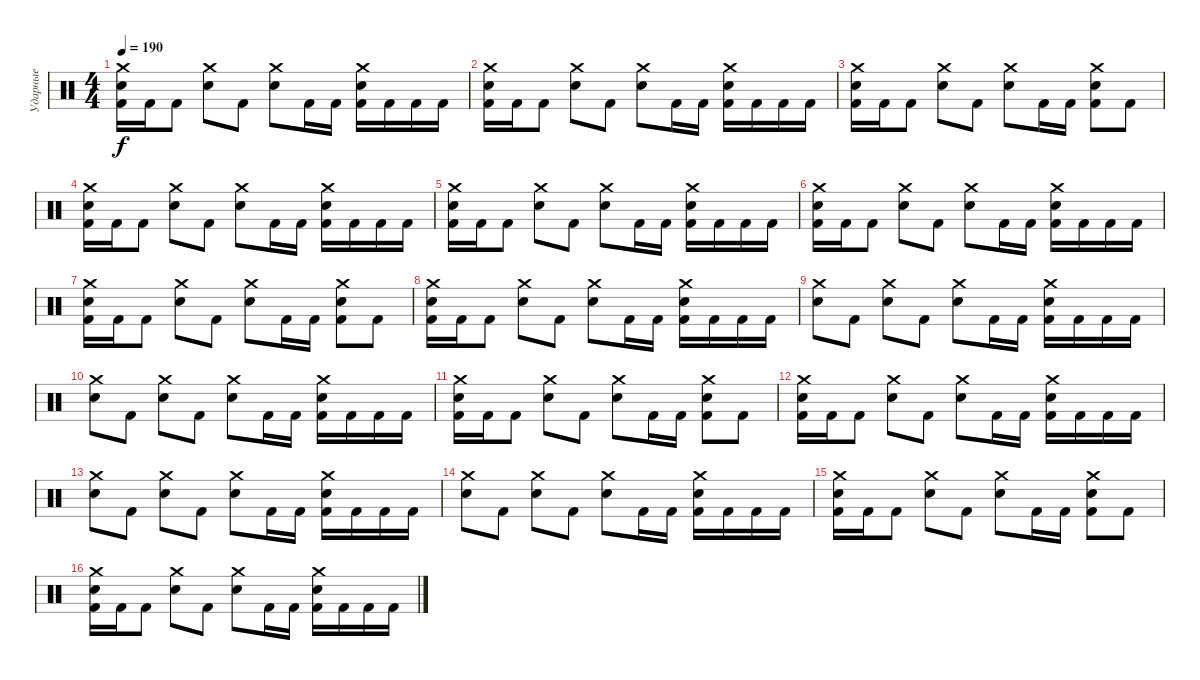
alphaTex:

\track ("Ударные" "Ударные") {instrument percussion}
\staff {score}
\articulation defaults
\ts (4 4)
\section ("" "")
\tempo 190
\clef neutral
\ks c
("Crash medium (hit)" "Snare (hit) 2" "Kick (hit) 2").16{dy f} "Kick (hit) 2".16 "Kick (hit) 2".8 ("Crash medium (hit)" "Snare (hit) 2").8 "Kick (hit) 2".8 ("Crash medium (hit)" "Snare (hit) 2").8 "Kick (hit) 2".16 "Kick (hit) 2".16 ("Crash medium (hit)" "Snare (hit) 2" "Kick (hit) 2").16 "Kick (hit) 2".16 "Kick (hit) 2".16 "Kick (hit) 2".16 |
("Crash medium (hit)" "Snare (hit) 2" "Kick (hit) 2").16 "Kick (hit) 2".16 "Kick (hit) 2".8 ("Crash medium (hit)" "Snare (hit) 2").8 "Kick (hit) 2".8 ("Crash medium (hit)" "Snare (hit) 2").8 "Kick (hit) 2".16 "Kick (hit) 2".16 ("Crash medium (hit)" "Snare (hit) 2" "Kick (hit) 2").16 "Kick (hit) 2".16 "Kick (hit) 2".16 "Kick (hit) 2".16 |
("Crash medium (hit)" "Snare (hit) 2" "Kick (hit) 2").16 "Kick (hit) 2".16 "Kick (hit) 2".8 ("Crash medium (hit)" "Snare (hit) 2").8 "Kick (hit) 2".8 ("Crash medium (hit)" "Snare (hit) 2").8 "Kick (hit) 2".16 "Kick (hit) 2".16 ("Crash medium (hit)" "Snare (hit) 2" "Kick (hit) 2").8 "Kick (hit) 2".8 |
("Crash medium (hit)" "Snare (hit) 2" "Kick (hit) 2").16 "Kick (hit) 2".16 "Kick (hit) 2".8 ("Crash medium (hit)" "Snare (hit) 2").8 "Kick (hit) 2".8 ("Crash medium (hit)" "Snare (hit) 2").8 "Kick (hit) 2".16 "Kick (hit) 2".16 ("Crash medium (hit)" "Snare (hit) 2" "Kick (hit) 2").16 "Kick (hit) 2".16 "Kick (hit) 2".16 "Kick (hit) 2".16 |
("Crash medium (hit)" "Snare (hit) 2" "Kick (hit) 2").16 "Kick (hit) 2".16 "Kick (hit) 2".8 ("Crash medium (hit)" "Snare (hit) 2").8 "Kick (hit) 2".8 ("Crash medium (hit)" "Snare (hit) 2").8 "Kick (hit) 2".16 "Kick (hit) 2".16 ("Crash medium (hit)" "Snare (hit) 2" "Kick (hit) 2").16 "Kick (hit) 2".16 "Kick (hit) 2".16 "Kick (hit) 2".16 |
("Crash medium (hit)" "Snare (hit) 2" "Kick (hit) 2").16 "Kick (hit) 2".16 "Kick (hit) 2".8 ("Crash medium (hit)" "Snare (hit) 2").8 "Kick (hit) 2".8 ("Crash medium (hit)" "Snare (hit) 2").8 "Kick (hit) 2".16 "Kick (hit) 2".16 ("Crash medium (hit)" "Snare (hit) 2" "Kick (hit) 2").16 "Kick (hit) 2".16 "Kick (hit) 2".16 "Kick (hit) 2".16 |
("Crash medium (hit)" "Snare (hit) 2" "Kick (hit) 2").16 "Kick (hit) 2".16 "Kick (hit) 2".8 ("Crash medium (hit)" "Snare (hit) 2").8 "Kick (hit) 2".8 ("Crash medium (hit)" "Snare (hit) 2").8 "Kick (hit) 2".16 "Kick (hit) 2".16 ("Crash medium (hit)" "Snare (hit) 2" "Kick (hit) 2").8 "Kick (hit) 2".8 |
("Crash medium (hit)" "Snare (hit) 2" "Kick (hit) 2").16 "Kick (hit) 2".16 "Kick (hit) 2".8 ("Crash medium (hit)" "Snare (hit) 2").8 "Kick (hit) 2".8 ("Crash medium (hit)" "Snare (hit) 2").8 "Kick (hit) 2".16 "Kick (hit) 2".16 ("Crash medium (hit)" "Snare (hit) 2" "Kick (hit) 2").16 "Kick (hit) 2".16 "Kick (hit) 2".16 "Kick (hit) 2".16 |
("Crash medium (hit)" "Snare (hit) 2").8 "Kick (hit) 2".8 ("Crash medium (hit)" "Snare (hit) 2").8 "Kick (hit) 2".8 ("Crash medium (hit)" "Snare (hit) 2").8 "Kick (hit) 2".16 "Kick (hit) 2".16 ("Crash medium (hit)" "Snare (hit) 2" "Kick (hit) 2").16 "Kick (hit) 2".16 "Kick (hit) 2".16 "Kick (hit) 2".16 |
("Crash medium (hit)" "Snare (hit) 2").8 "Kick (hit) 2".8 ("Crash medium (hit)" "Snare (hit) 2").8 "Kick (hit) 2".8 ("Crash medium (hit)" "Snare (hit) 2").8 "Kick (hit) 2".16 "Kick (hit) 2".16 ("Crash medium (hit)" "Snare (hit) 2" "Kick (hit) 2").16 "Kick (hit) 2".16 "Kick (hit) 2".16 "Kick (hit) 2".16 |
("Crash medium (hit)" "Snare (hit) 2" "Kick (hit) 2").16 "Kick (hit) 2".16 "Kick (hit) 2".8 ("Crash medium (hit)" "Snare (hit) 2").8 "Kick (hit) 2".8 ("Crash medium (hit)" "Snare (hit) 2").8 "Kick (hit) 2".16 "Kick (hit) 2".16 ("Crash medium (hit)" "Snare (hit) 2" "Kick (hit) 2").8 "Kick (hit) 2".8 |
("Crash medium (hit)" "Snare (hit) 2" "Kick (hit) 2").16 "Kick (hit) 2".16 "Kick (hit) 2".8 ("Crash medium (hit)" "Snare (hit) 2").8 "Kick (hit) 2".8 ("Crash medium (hit)" "Snare (hit) 2").8 "Kick (hit) 2".16 "Kick (hit) 2".16 ("Crash medium (hit)" "Snare (hit) 2" "Kick (hit) 2").16 "Kick (hit) 2".16 "Kick (hit) 2".16 "Kick (hit) 2".16 |
("Crash medium (hit)" "Snare (hit) 2").8 "Kick (hit) 2".8 ("Crash medium (hit)" "Snare (hit) 2").8 "Kick (hit) 2".8 ("Crash medium (hit)" "Snare (hit) 2").8 "Kick (hit) 2".16 "Kick (hit) 2".16 ("Crash medium (hit)" "Snare (hit) 2" "Kick (hit) 2").16 "Kick (hit) 2".16 "Kick (hit) 2".16 "Kick (hit) 2".16 |
("Crash medium (hit)" "Snare (hit) 2").8 "Kick (hit) 2".8 ("Crash medium (hit)" "Snare (hit) 2").8 "Kick (hit) 2".8 ("Crash medium (hit)" "Snare (hit) 2").8 "Kick (hit) 2".16 "Kick (hit) 2".16 ("Crash medium (hit)" "Snare (hit) 2" "Kick (hit) 2").16 "Kick (hit) 2".16 "Kick (hit) 2".16 "Kick (hit) 2".16 |
("Crash medium (hit)" "Snare (hit) 2" "Kick (hit) 2").16 "Kick (hit) 2".16 "Kick (hit) 2".8 ("Crash medium (hit)" "Snare (hit) 2").8 "Kick (hit) 2".8 ("Crash medium (hit)" "Snare (hit) 2").8 "Kick (hit) 2".16 "Kick (hit) 2".16 ("Crash medium (hit)" "Snare (hit) 2" "Kick (hit) 2").8 "Kick (hit) 2".8 |
("Crash medium (hit)" "Snare (hit) 2" "Kick (hit) 2").16 "Kick (hit) 2".16 "Kick (hit) 2".8 ("Crash medium (hit)" "Snare (hit) 2").8 "Kick (hit) 2".8 ("Crash medium (hit)" "Snare (hit) 2").8 "Kick (hit) 2".16 "Kick (hit) 2".16 ("Crash medium (hit)" "Snare (hit) 2" "Kick (hit) 2").16 "Kick (hit) 2".16 "Kick (hit) 2".16 "Kick (hit) 2".16
